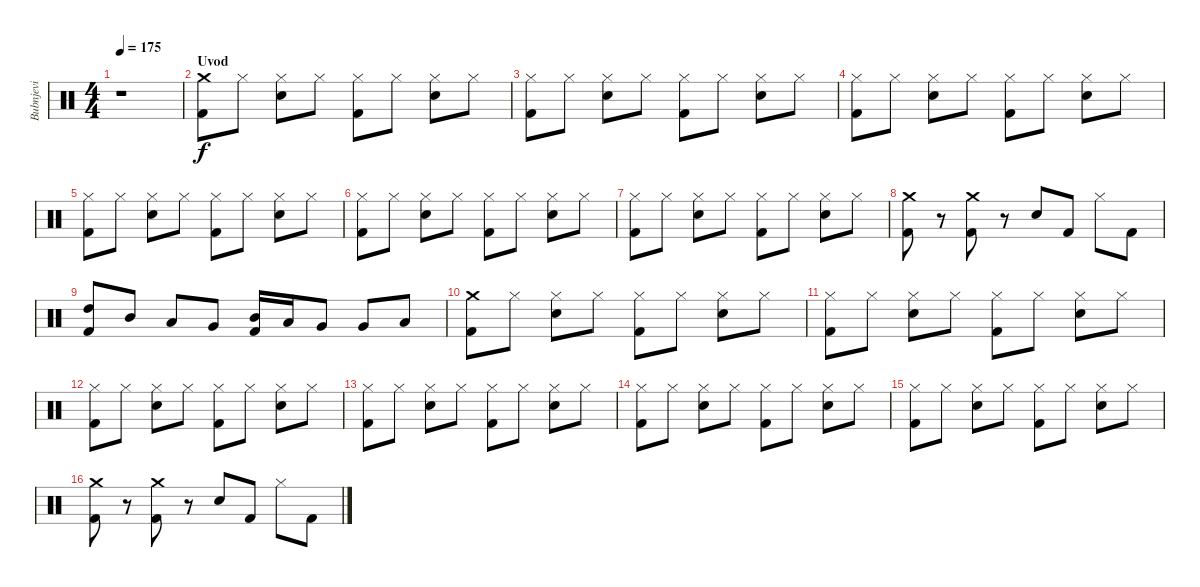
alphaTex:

\track ("Bubnjevi" "Bubnjevi") {instrument percussion}
\staff {score}
\articulation defaults
\ts (4 4)
\tempo 175
\clef neutral
\ks c
r.1{dy f} |
\section ("" "Uvod")
("Crash medium (hit)" "Kick (hit) 2").8 "Hi-Hat (closed)".8 ("Electric Snare (hit)" "Hi-Hat (closed)").8 "Hi-Hat (closed)".8 ("Hi-Hat (closed)" "Kick (hit) 2").8 "Hi-Hat (closed)".8 ("Electric Snare (hit)" "Hi-Hat (closed)").8 "Hi-Hat (closed)".8 |
("Hi-Hat (closed)" "Kick (hit) 2").8 "Hi-Hat (closed)".8 ("Electric Snare (hit)" "Hi-Hat (closed)").8 "Hi-Hat (closed)".8 ("Hi-Hat (closed)" "Kick (hit) 2").8 "Hi-Hat (closed)".8 ("Electric Snare (hit)" "Hi-Hat (closed)").8 "Hi-Hat (closed)".8 |
("Hi-Hat (closed)" "Kick (hit) 2").8 "Hi-Hat (closed)".8 ("Electric Snare (hit)" "Hi-Hat (closed)").8 "Hi-Hat (closed)".8 ("Hi-Hat (closed)" "Kick (hit) 2").8 "Hi-Hat (closed)".8 ("Electric Snare (hit)" "Hi-Hat (closed)").8 "Hi-Hat (closed)".8 |
("Hi-Hat (closed)" "Kick (hit) 2").8 "Hi-Hat (closed)".8 ("Electric Snare (hit)" "Hi-Hat (closed)").8 "Hi-Hat (closed)".8 ("Hi-Hat (closed)" "Kick (hit) 2").8 "Hi-Hat (closed)".8 ("Electric Snare (hit)" "Hi-Hat (closed)").8 "Hi-Hat (closed)".8 |
("Hi-Hat (closed)" "Kick (hit) 2").8 "Hi-Hat (closed)".8 ("Electric Snare (hit)" "Hi-Hat (closed)").8 "Hi-Hat (closed)".8 ("Hi-Hat (closed)" "Kick (hit) 2").8 "Hi-Hat (closed)".8 ("Electric Snare (hit)" "Hi-Hat (closed)").8 "Hi-Hat (closed)".8 |
("Hi-Hat (closed)" "Kick (hit) 2").8 "Hi-Hat (closed)".8 ("Electric Snare (hit)" "Hi-Hat (closed)").8 "Hi-Hat (closed)".8 ("Hi-Hat (closed)" "Kick (hit) 2").8 "Hi-Hat (closed)".8 ("Electric Snare (hit)" "Hi-Hat (closed)").8 "Hi-Hat (closed)".8 |
("Crash medium (hit)" "Kick (hit) 2").8 r.8 ("Crash medium (hit)" "Kick (hit) 2").8 r.8 "Electric Snare (hit)".8 "Kick (hit) 2".8 "Hi-Hat (closed)".8 "Kick (hit) 2".8 |
("High Tom (hit)" "Kick (hit) 2").8 "Mid Tom (hit)".8 "Low Tom (hit)".8 "Very Low Tom (hit)".8 ("Mid Tom (hit)" "Kick (hit) 2").16 "Low Tom (hit)".16 "Very Low Tom (hit)".8 "Very Low Tom (hit)".8 "Low Floor Tom (hit)".8 |
("Crash medium (hit)" "Kick (hit) 2").8 "Hi-Hat (closed)".8 ("Electric Snare (hit)" "Hi-Hat (closed)").8 "Hi-Hat (closed)".8 ("Hi-Hat (closed)" "Kick (hit) 2").8 "Hi-Hat (closed)".8 ("Electric Snare (hit)" "Hi-Hat (closed)").8 "Hi-Hat (closed)".8 |
("Hi-Hat (closed)" "Kick (hit) 2").8 "Hi-Hat (closed)".8 ("Electric Snare (hit)" "Hi-Hat (closed)").8 "Hi-Hat (closed)".8 ("Hi-Hat (closed)" "Kick (hit) 2").8 "Hi-Hat (closed)".8 ("Electric Snare (hit)" "Hi-Hat (closed)").8 "Hi-Hat (closed)".8 |
("Hi-Hat (closed)" "Kick (hit) 2").8 "Hi-Hat (closed)".8 ("Electric Snare (hit)" "Hi-Hat (closed)").8 "Hi-Hat (closed)".8 ("Hi-Hat (closed)" "Kick (hit) 2").8 "Hi-Hat (closed)".8 ("Electric Snare (hit)" "Hi-Hat (closed)").8 "Hi-Hat (closed)".8 |
("Hi-Hat (closed)" "Kick (hit) 2").8 "Hi-Hat (closed)".8 ("Electric Snare (hit)" "Hi-Hat (closed)").8 "Hi-Hat (closed)".8 ("Hi-Hat (closed)" "Kick (hit) 2").8 "Hi-Hat (closed)".8 ("Electric Snare (hit)" "Hi-Hat (closed)").8 "Hi-Hat (closed)".8 |
("Hi-Hat (closed)" "Kick (hit) 2").8 "Hi-Hat (closed)".8 ("Electric Snare (hit)" "Hi-Hat (closed)").8 "Hi-Hat (closed)".8 ("Hi-Hat (closed)" "Kick (hit) 2").8 "Hi-Hat (closed)".8 ("Electric Snare (hit)" "Hi-Hat (closed)").8 "Hi-Hat (closed)".8 |
("Hi-Hat (closed)" "Kick (hit) 2").8 "Hi-Hat (closed)".8 ("Electric Snare (hit)" "Hi-Hat (closed)").8 "Hi-Hat (closed)".8 ("Hi-Hat (closed)" "Kick (hit) 2").8 "Hi-Hat (closed)".8 ("Electric Snare (hit)" "Hi-Hat (closed)").8 "Hi-Hat (closed)".8 |
("Crash medium (hit)" "Kick (hit) 2").8 r.8 ("Crash medium (hit)" "Kick (hit) 2").8 r.8 "Electric Snare (hit)".8 "Kick (hit) 2".8 "Hi-Hat (closed)".8 "Kick (hit) 2".8
